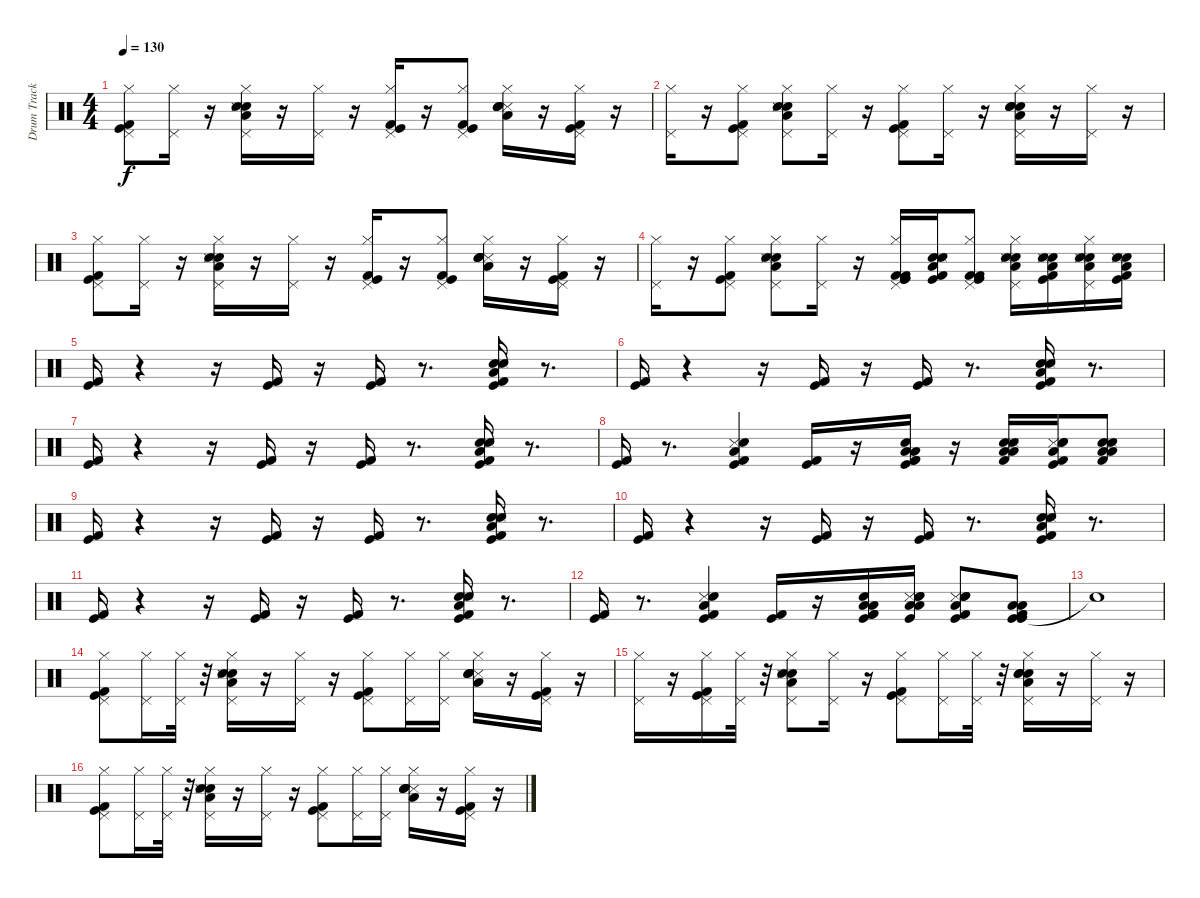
\track ("Drum Track" "Drum Track") {instrument percussion}
\staff {score}
\articulation defaults
\ts (4 4)
\tempo 130
\clef neutral
\ks c
("Kick (hit) 2" "Kick (hit)" "Hi-Hat (closed)" "Pedal Hi-Hat (hit)").8{dy f} ("Hi-Hat (closed)" "Pedal Hi-Hat (hit)").16 r.16 ("Electric Snare (hit)" "Snare (hit) 2" "Snare (side stick) 3" "Hi-Hat (closed)" "Pedal Hi-Hat (hit)" "Low Floor Tom (hit)").16 r.16 ("Hi-Hat (closed)" "Pedal Hi-Hat (hit)").16 r.16 ("Kick (hit) 2" "Kick (hit)" "Hi-Hat (closed)" "Pedal Hi-Hat (hit)").16 r.16 ("Kick (hit) 2" "Kick (hit)" "Hi-Hat (closed)" "Pedal Hi-Hat (hit)").8 ("Snare (side stick) 3" "Snare (hit) 2" "Electric Snare (hit)" "Electric Snare (hit)" "Low Floor Tom (hit)" "Hi-Hat (closed)").16 r.16 ("Kick (hit) 2" "Kick (hit)" "Hi-Hat (closed)" "Pedal Hi-Hat (hit)").16 r.16 |
("Pedal Hi-Hat (hit)" "Hi-Hat (closed)").16 r.16 ("Kick (hit) 2" "Kick (hit)" "Hi-Hat (closed)" "Pedal Hi-Hat (hit)").8 ("Hi-Hat (closed)" "Pedal Hi-Hat (hit)" "Low Floor Tom (hit)" "Electric Snare (hit)" "Snare (hit) 2" "Snare (side stick) 3").8 ("Hi-Hat (closed)" "Pedal Hi-Hat (hit)").16 r.16 ("Hi-Hat (closed)" "Pedal Hi-Hat (hit)" "Kick (hit) 2" "Kick (hit)").8 ("Hi-Hat (closed)" "Pedal Hi-Hat (hit)").16 r.16 ("Hi-Hat (closed)" "Pedal Hi-Hat (hit)" "Low Floor Tom (hit)" "Electric Snare (hit)" "Electric Snare (hit)" "Snare (hit) 2").16 r.16 ("Hi-Hat (closed)" "Pedal Hi-Hat (hit)").16 r.16 |
("Kick (hit) 2" "Kick (hit)" "Hi-Hat (closed)" "Pedal Hi-Hat (hit)").8 ("Hi-Hat (closed)" "Pedal Hi-Hat (hit)").16 r.16 ("Electric Snare (hit)" "Snare (hit) 2" "Snare (side stick) 3" "Hi-Hat (closed)" "Pedal Hi-Hat (hit)" "Low Floor Tom (hit)").16 r.16 ("Hi-Hat (closed)" "Pedal Hi-Hat (hit)").16 r.16 ("Kick (hit) 2" "Kick (hit)" "Hi-Hat (closed)" "Pedal Hi-Hat (hit)").16 r.16 ("Kick (hit) 2" "Kick (hit)" "Hi-Hat (closed)" "Pedal Hi-Hat (hit)").8 ("Snare (side stick) 3" "Snare (hit) 2" "Electric Snare (hit)" "Electric Snare (hit)" "Low Floor Tom (hit)" "Hi-Hat (closed)").16 r.16 ("Kick (hit) 2" "Kick (hit)" "Hi-Hat (closed)" "Pedal Hi-Hat (hit)").16 r.16 |
("Pedal Hi-Hat (hit)" "Hi-Hat (closed)").16 r.16 ("Kick (hit) 2" "Kick (hit)" "Hi-Hat (closed)" "Pedal Hi-Hat (hit)").8 ("Hi-Hat (closed)" "Pedal Hi-Hat (hit)" "Low Floor Tom (hit)" "Electric Snare (hit)" "Snare (hit) 2" "Snare (side stick) 3").8 ("Hi-Hat (closed)" "Pedal Hi-Hat (hit)").16 r.16 ("Hi-Hat (closed)" "Pedal Hi-Hat (hit)" "Kick (hit) 2" "Kick (hit)" "Kick (hit)" "Kick (hit) 2").16 ("Low Floor Tom (hit)" "Electric Snare (hit)" "Snare (hit) 2" "Snare (side stick) 3" "Kick (hit) 2" "Kick (hit)").16 ("Hi-Hat (closed)" "Pedal Hi-Hat (hit)" "Kick (hit) 2" "Kick (hit)" "Kick (hit) 2").8 ("Hi-Hat (closed)" "Pedal Hi-Hat (hit)" "Low Floor Tom (hit)" "Electric Snare (hit)" "Snare (hit) 2" "Snare (side stick) 3").16 ("Low Floor Tom (hit)" "Electric Snare (hit)" "Snare (hit) 2" "Snare (side stick) 3" "Kick (hit) 2" "Kick (hit)").16 ("Hi-Hat (closed)" "Pedal Hi-Hat (hit)" "Low Floor Tom (hit)" "Electric Snare (hit)" "Snare (hit) 2" "Snare (side stick) 3").16 ("Electric Snare (hit)" "Low Floor Tom (hit)" "Snare (hit) 2" "Snare (side stick) 3" "Kick (hit) 2" "Kick (hit)").16 |
("Kick (hit) 2" "Kick (hit)").16 r.4 r.16 ("Kick (hit) 2" "Kick (hit)").16 r.16 ("Kick (hit) 2" "Kick (hit)").16 r.8{d} ("Snare (hit) 2" "Electric Snare (hit)" "Snare (side stick) 3" "Low Floor Tom (hit)" "Kick (hit) 2" "Kick (hit)").16 r.8{d} |
("Kick (hit)" "Kick (hit) 2").16 r.4 r.16 ("Kick (hit) 2" "Kick (hit)").16 r.16 ("Kick (hit) 2" "Kick (hit)").16 r.8{d} ("Snare (hit) 2" "Electric Snare (hit)" "Snare (side stick) 3" "Low Floor Tom (hit)" "Kick (hit) 2" "Kick (hit)").16 r.8{d} |
("Kick (hit)" "Kick (hit) 2").16 r.4 r.16 ("Kick (hit) 2" "Kick (hit)").16 r.16 ("Kick (hit) 2" "Kick (hit)").16 r.8{d} ("Snare (hit) 2" "Electric Snare (hit)" "Snare (side stick) 3" "Low Floor Tom (hit)" "Kick (hit) 2" "Kick (hit)").16 r.8{d} |
("Kick (hit) 2" "Kick (hit)").16 r.8{d} ("Kick (hit) 2" "Kick (hit)" "Snare (side stick) 3" "Snare (hit) 2" "Low Floor Tom (hit)").4 ("Kick (hit)" "Kick (hit) 2").16 r.16 ("Kick (hit) 2" "Kick (hit)" "Kick (hit) 2" "Low Tom (hit)" "Low Floor Tom (hit)" "Electric Snare (hit)").16 r.16 ("Low Tom (hit)" "Low Floor Tom (hit)" "Electric Snare (hit)" "Snare (hit) 2" "Snare (side stick) 3" "Kick (hit) 2").16 ("Kick (hit)" "Kick (hit) 2" "Snare (side stick) 3" "Snare (hit) 2" "Electric Snare (hit)" "Low Floor Tom (hit)").16 ("Low Tom (hit)" "Low Floor Tom (hit)" "Electric Snare (hit)" "Snare (hit) 2" "Snare (side stick) 3" "Kick (hit) 2").8 |
("Kick (hit)" "Kick (hit) 2").16 r.4 r.16 ("Kick (hit) 2" "Kick (hit)").16 r.16 ("Kick (hit) 2" "Kick (hit)").16 r.8{d} ("Snare (hit) 2" "Electric Snare (hit)" "Snare (side stick) 3" "Low Floor Tom (hit)" "Kick (hit) 2" "Kick (hit)").16 r.8{d} |
("Kick (hit)" "Kick (hit) 2").16 r.4 r.16 ("Kick (hit) 2" "Kick (hit)").16 r.16 ("Kick (hit) 2" "Kick (hit)").16 r.8{d} ("Snare (hit) 2" "Electric Snare (hit)" "Snare (side stick) 3" "Low Floor Tom (hit)" "Kick (hit) 2" "Kick (hit)").16 r.8{d} |
("Kick (hit)" "Kick (hit) 2").16 r.4 r.16 ("Kick (hit) 2" "Kick (hit)").16 r.16 ("Kick (hit) 2" "Kick (hit)").16 r.8{d} ("Snare (hit) 2" "Electric Snare (hit)" "Snare (side stick) 3" "Low Floor Tom (hit)" "Kick (hit) 2" "Kick (hit)").16 r.8{d} |
("Kick (hit) 2" "Kick (hit)").16 r.8{d} ("Kick (hit) 2" "Kick (hit)" "Snare (side stick) 3" "Snare (hit) 2" "Low Floor Tom (hit)").4 ("Kick (hit)" "Kick (hit) 2").16 r.16 ("Kick (hit) 2" "Kick (hit)" "Kick (hit) 2" "Low Tom (hit)" "Low Floor Tom (hit)" "Electric Snare (hit)").16 ("Snare (side stick) 3" "Snare (hit) 2" "Electric Snare (hit)" "Low Floor Tom (hit)" "Low Tom (hit)" "Kick (hit)").16 ("Low Tom (hit)" "Kick (hit)" "Kick (hit) 2" "Snare (side stick) 3" "Snare (hit) 2" "Electric Snare (hit)").8 ("Kick (hit)" "Kick (hit) 2" "Low Tom (hit)" "Kick (hit)" "Kick (hit) 2" "Low Floor Tom (hit)").8 |
"Snare (hit)"{t}.1 |
("Kick (hit) 2" "Kick (hit)" "Hi-Hat (closed)" "Pedal Hi-Hat (hit)").8 ("Hi-Hat (closed)" "Pedal Hi-Hat (hit)").16 ("Hi-Hat (closed)" "Pedal Hi-Hat (hit)").32 r.32 ("Electric Snare (hit)" "Snare (hit) 2" "Snare (side stick) 3" "Hi-Hat (closed)" "Pedal Hi-Hat (hit)" "Low Floor Tom (hit)").16 r.16 ("Hi-Hat (closed)" "Pedal Hi-Hat (hit)").16 r.16 ("Kick (hit) 2" "Kick (hit)" "Hi-Hat (closed)" "Pedal Hi-Hat (hit)").8 ("Hi-Hat (closed)" "Pedal Hi-Hat (hit)").16 ("Pedal Hi-Hat (hit)" "Hi-Hat (closed)").16 ("Snare (side stick) 3" "Snare (hit) 2" "Electric Snare (hit)" "Electric Snare (hit)" "Low Floor Tom (hit)" "Hi-Hat (closed)").16 r.16 ("Kick (hit) 2" "Kick (hit)" "Hi-Hat (closed)" "Pedal Hi-Hat (hit)").16 r.16 |
("Pedal Hi-Hat (hit)" "Hi-Hat (closed)").16 r.16 ("Kick (hit) 2" "Kick (hit)" "Pedal Hi-Hat (hit)" "Hi-Hat (closed)").16 ("Pedal Hi-Hat (hit)" "Hi-Hat (closed)").32 r.32 ("Hi-Hat (closed)" "Pedal Hi-Hat (hit)" "Low Floor Tom (hit)" "Electric Snare (hit)" "Snare (hit) 2" "Snare (side stick) 3").8 ("Hi-Hat (closed)" "Pedal Hi-Hat (hit)").16 r.16 ("Hi-Hat (closed)" "Pedal Hi-Hat (hit)" "Kick (hit) 2" "Kick (hit)").8 ("Hi-Hat (closed)" "Pedal Hi-Hat (hit)").16 ("Pedal Hi-Hat (hit)" "Hi-Hat (closed)").32 r.32 ("Hi-Hat (closed)" "Pedal Hi-Hat (hit)" "Low Floor Tom (hit)" "Electric Snare (hit)" "Electric Snare (hit)" "Snare (hit) 2").16 r.16 ("Hi-Hat (closed)" "Pedal Hi-Hat (hit)").16 r.16 |
("Kick (hit) 2" "Kick (hit)" "Hi-Hat (closed)" "Pedal Hi-Hat (hit)").8 ("Hi-Hat (closed)" "Pedal Hi-Hat (hit)").16 ("Hi-Hat (closed)" "Pedal Hi-Hat (hit)").32 r.32 ("Electric Snare (hit)" "Snare (hit) 2" "Snare (side stick) 3" "Hi-Hat (closed)" "Pedal Hi-Hat (hit)" "Low Floor Tom (hit)").16 r.16 ("Hi-Hat (closed)" "Pedal Hi-Hat (hit)").16 r.16 ("Kick (hit) 2" "Kick (hit)" "Hi-Hat (closed)" "Pedal Hi-Hat (hit)").8 ("Hi-Hat (closed)" "Pedal Hi-Hat (hit)").16 ("Pedal Hi-Hat (hit)" "Hi-Hat (closed)").16 ("Snare (side stick) 3" "Snare (hit) 2" "Electric Snare (hit)" "Electric Snare (hit)" "Low Floor Tom (hit)" "Hi-Hat (closed)").16 r.16 ("Kick (hit) 2" "Kick (hit)" "Hi-Hat (closed)" "Pedal Hi-Hat (hit)").16 r.16
